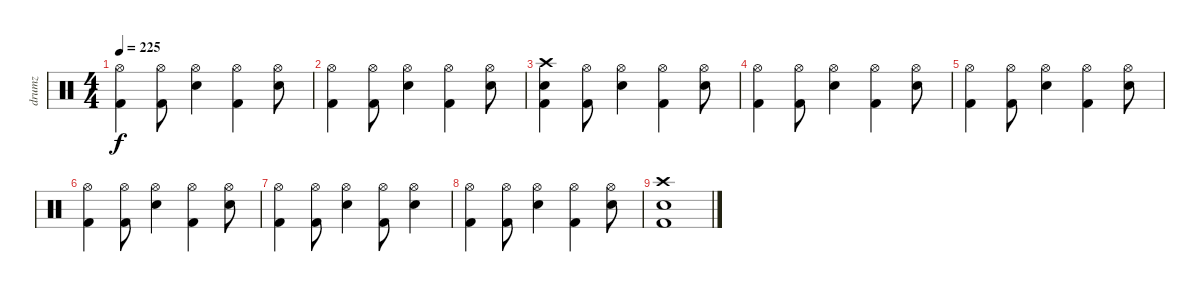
\track ("drumz" "drumz") {instrument percussion}
\staff {score}
\articulation defaults
\ts (4 4)
\tempo 225
\clef neutral
\ks c
("Hi-Hat (open)" "Kick (hit) 2").4{dy f} ("Hi-Hat (open)" "Kick (hit) 2").8 ("Hi-Hat (open)" "Electric Snare (hit)").4 ("Hi-Hat (open)" "Kick (hit) 2").4 ("Hi-Hat (open)" "Electric Snare (hit)").8 |
("Hi-Hat (open)" "Kick (hit) 2").4 ("Hi-Hat (open)" "Kick (hit) 2").8 ("Hi-Hat (open)" "Electric Snare (hit)").4 ("Hi-Hat (open)" "Kick (hit) 2").4 ("Hi-Hat (open)" "Electric Snare (hit)").8 |
("Crash high (hit)" "Electric Snare (hit)" "Kick (hit) 2").4 ("Hi-Hat (open)" "Kick (hit) 2").8 ("Hi-Hat (open)" "Electric Snare (hit)").4 ("Hi-Hat (open)" "Kick (hit) 2").4 ("Hi-Hat (open)" "Electric Snare (hit)").8 |
("Hi-Hat (open)" "Kick (hit) 2").4 ("Hi-Hat (open)" "Kick (hit) 2").8 ("Hi-Hat (open)" "Electric Snare (hit)").4 ("Hi-Hat (open)" "Kick (hit) 2").4 ("Hi-Hat (open)" "Electric Snare (hit)").8 |
("Hi-Hat (open)" "Kick (hit) 2").4 ("Hi-Hat (open)" "Kick (hit) 2").8 ("Hi-Hat (open)" "Electric Snare (hit)").4 ("Hi-Hat (open)" "Kick (hit) 2").4 ("Hi-Hat (open)" "Electric Snare (hit)").8 |
("Hi-Hat (open)" "Kick (hit) 2").4 ("Hi-Hat (open)" "Kick (hit) 2").8 ("Hi-Hat (open)" "Electric Snare (hit)").4 ("Hi-Hat (open)" "Kick (hit) 2").4 ("Hi-Hat (open)" "Electric Snare (hit)").8 |
("Hi-Hat (open)" "Kick (hit) 2").4 ("Hi-Hat (open)" "Kick (hit) 2").8 ("Hi-Hat (open)" "Electric Snare (hit)").4 ("Hi-Hat (open)" "Kick (hit) 2").8 ("Hi-Hat (open)" "Electric Snare (hit)").4 |
("Hi-Hat (open)" "Kick (hit) 2").4 ("Hi-Hat (open)" "Kick (hit) 2").8 ("Hi-Hat (open)" "Electric Snare (hit)").4 ("Hi-Hat (open)" "Kick (hit) 2").4 ("Hi-Hat (open)" "Electric Snare (hit)").8 |
("Crash high (hit)" "Electric Snare (hit)" "Kick (hit) 2").1
